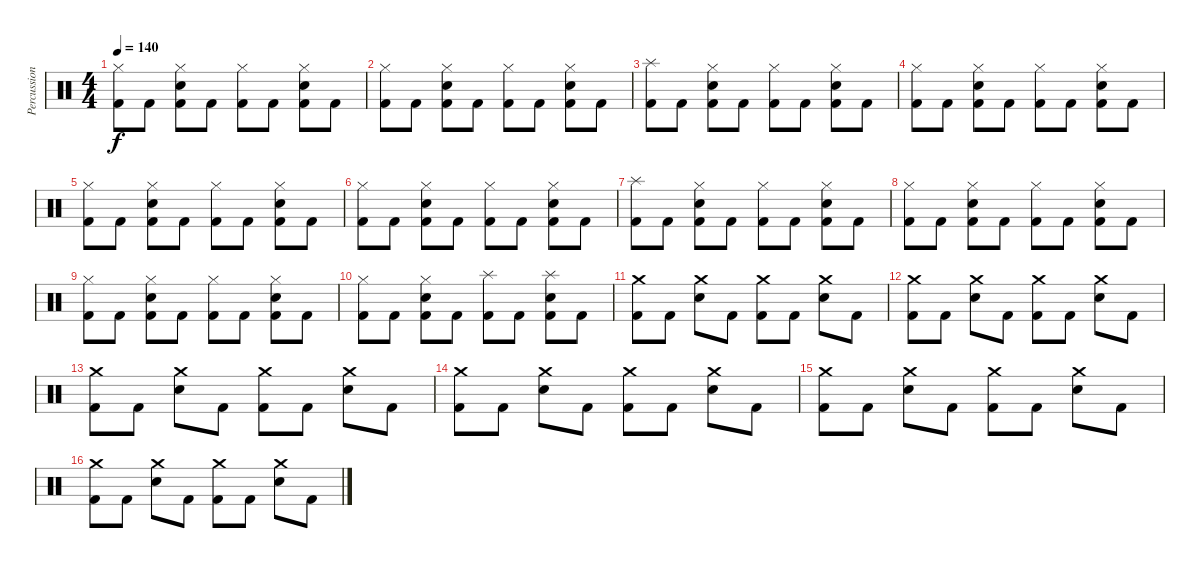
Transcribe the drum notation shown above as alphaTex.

\track ("Percussion" "Percussion") {instrument percussion}
\staff {score}
\articulation defaults
\ts (4 4)
\tempo 140
\clef neutral
\ks c
("Hi-Hat (closed)" "Kick (hit) 2").8{dy f} "Kick (hit) 2".8 ("Hi-Hat (closed)" "Electric Snare (hit)" "Kick (hit) 2").8 "Kick (hit) 2".8 ("Hi-Hat (closed)" "Kick (hit) 2").8 "Kick (hit) 2".8 ("Hi-Hat (closed)" "Electric Snare (hit)" "Kick (hit) 2").8 "Kick (hit) 2".8 |
("Hi-Hat (closed)" "Kick (hit) 2").8 "Kick (hit) 2".8 ("Hi-Hat (closed)" "Electric Snare (hit)" "Kick (hit) 2").8 "Kick (hit) 2".8 ("Hi-Hat (closed)" "Kick (hit) 2").8 "Kick (hit) 2".8 ("Hi-Hat (closed)" "Electric Snare (hit)" "Kick (hit) 2").8 "Kick (hit) 2".8 |
("Splash (hit)" "Kick (hit) 2").8 "Kick (hit) 2".8 ("Hi-Hat (closed)" "Electric Snare (hit)" "Kick (hit) 2").8 "Kick (hit) 2".8 ("Hi-Hat (closed)" "Kick (hit) 2").8 "Kick (hit) 2".8 ("Hi-Hat (closed)" "Electric Snare (hit)" "Kick (hit) 2").8 "Kick (hit) 2".8 |
("Hi-Hat (closed)" "Kick (hit) 2").8 "Kick (hit) 2".8 ("Hi-Hat (closed)" "Electric Snare (hit)" "Kick (hit) 2").8 "Kick (hit) 2".8 ("Hi-Hat (closed)" "Kick (hit) 2").8 "Kick (hit) 2".8 ("Hi-Hat (closed)" "Electric Snare (hit)" "Kick (hit) 2").8 "Kick (hit) 2".8 |
("Hi-Hat (closed)" "Kick (hit) 2").8 "Kick (hit) 2".8 ("Hi-Hat (closed)" "Electric Snare (hit)" "Kick (hit) 2").8 "Kick (hit) 2".8 ("Hi-Hat (closed)" "Kick (hit) 2").8 "Kick (hit) 2".8 ("Hi-Hat (closed)" "Electric Snare (hit)" "Kick (hit) 2").8 "Kick (hit) 2".8 |
("Hi-Hat (closed)" "Kick (hit) 2").8 "Kick (hit) 2".8 ("Hi-Hat (closed)" "Electric Snare (hit)" "Kick (hit) 2").8 "Kick (hit) 2".8 ("Hi-Hat (closed)" "Kick (hit) 2").8 "Kick (hit) 2".8 ("Hi-Hat (closed)" "Electric Snare (hit)" "Kick (hit) 2").8 "Kick (hit) 2".8 |
("Splash (hit)" "Kick (hit) 2").8 "Kick (hit) 2".8 ("Hi-Hat (closed)" "Electric Snare (hit)" "Kick (hit) 2").8 "Kick (hit) 2".8 ("Hi-Hat (closed)" "Kick (hit) 2").8 "Kick (hit) 2".8 ("Hi-Hat (closed)" "Electric Snare (hit)" "Kick (hit) 2").8 "Kick (hit) 2".8 |
("Hi-Hat (closed)" "Kick (hit) 2").8 "Kick (hit) 2".8 ("Hi-Hat (closed)" "Electric Snare (hit)" "Kick (hit) 2").8 "Kick (hit) 2".8 ("Hi-Hat (closed)" "Kick (hit) 2").8 "Kick (hit) 2".8 ("Hi-Hat (closed)" "Electric Snare (hit)" "Kick (hit) 2").8 "Kick (hit) 2".8 |
("Hi-Hat (closed)" "Kick (hit) 2").8 "Kick (hit) 2".8 ("Hi-Hat (closed)" "Electric Snare (hit)" "Kick (hit) 2").8 "Kick (hit) 2".8 ("Hi-Hat (closed)" "Kick (hit) 2").8 "Kick (hit) 2".8 ("Hi-Hat (closed)" "Electric Snare (hit)" "Kick (hit) 2").8 "Kick (hit) 2".8 |
("Hi-Hat (closed)" "Kick (hit) 2").8 "Kick (hit) 2".8 ("Hi-Hat (closed)" "Electric Snare (hit)" "Kick (hit) 2").8 "Kick (hit) 2".8 ("Splash (hit)" "Kick (hit) 2").8 "Kick (hit) 2".8 ("Splash (hit)" "Electric Snare (hit)" "Kick (hit) 2").8 "Kick (hit) 2".8 |
("Crash medium (hit)" "Kick (hit) 2").8 "Kick (hit) 2".8 ("Crash medium (hit)" "Electric Snare (hit)").8 "Kick (hit) 2".8 ("Crash medium (hit)" "Kick (hit) 2").8 "Kick (hit) 2".8 ("Crash medium (hit)" "Electric Snare (hit)").8 "Kick (hit) 2".8 |
("Crash medium (hit)" "Kick (hit) 2").8 "Kick (hit) 2".8 ("Crash medium (hit)" "Electric Snare (hit)").8 "Kick (hit) 2".8 ("Crash medium (hit)" "Kick (hit) 2").8 "Kick (hit) 2".8 ("Crash medium (hit)" "Electric Snare (hit)").8 "Kick (hit) 2".8 |
("Crash medium (hit)" "Kick (hit) 2").8 "Kick (hit) 2".8 ("Crash medium (hit)" "Electric Snare (hit)").8 "Kick (hit) 2".8 ("Crash medium (hit)" "Kick (hit) 2").8 "Kick (hit) 2".8 ("Crash medium (hit)" "Electric Snare (hit)").8 "Kick (hit) 2".8 |
("Crash medium (hit)" "Kick (hit) 2").8 "Kick (hit) 2".8 ("Crash medium (hit)" "Electric Snare (hit)").8 "Kick (hit) 2".8 ("Crash medium (hit)" "Kick (hit) 2").8 "Kick (hit) 2".8 ("Crash medium (hit)" "Electric Snare (hit)").8 "Kick (hit) 2".8 |
("Crash medium (hit)" "Kick (hit) 2").8 "Kick (hit) 2".8 ("Crash medium (hit)" "Electric Snare (hit)").8 "Kick (hit) 2".8 ("Crash medium (hit)" "Kick (hit) 2").8 "Kick (hit) 2".8 ("Crash medium (hit)" "Electric Snare (hit)").8 "Kick (hit) 2".8 |
("Crash medium (hit)" "Kick (hit) 2").8 "Kick (hit) 2".8 ("Crash medium (hit)" "Electric Snare (hit)").8 "Kick (hit) 2".8 ("Crash medium (hit)" "Kick (hit) 2").8 "Kick (hit) 2".8 ("Crash medium (hit)" "Electric Snare (hit)").8 "Kick (hit) 2".8
